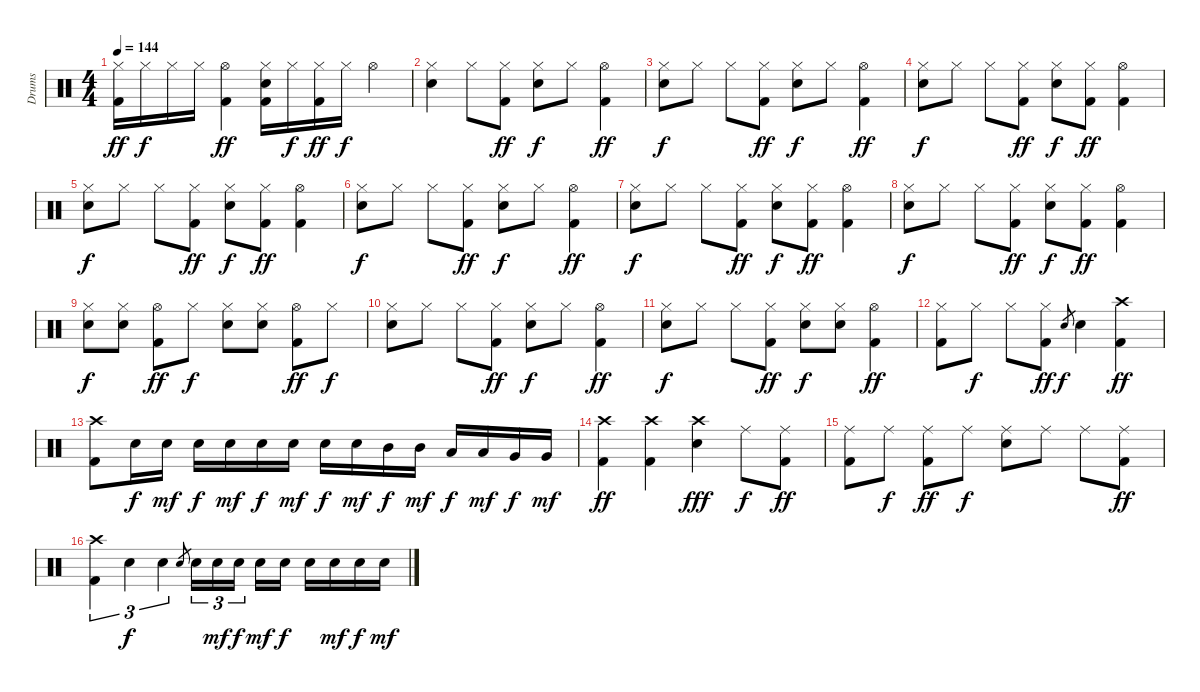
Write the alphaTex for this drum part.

\track ("Drums" "Drums") {instrument percussion}
\staff {score}
\articulation defaults
\ts (4 4)
\tempo 144
\clef neutral
\ks c
("Hi-Hat (closed)" "Kick (hit) 2").16{dy ff} "Hi-Hat (closed)".16{dy f} "Hi-Hat (closed)".16 "Hi-Hat (closed)".16 ("Hi-Hat (open)" "Kick (hit) 2").4{dy ff} ("Hi-Hat (closed)" "Snare (hit) 2" "Kick (hit) 2").16 "Hi-Hat (closed)".16{dy f} ("Hi-Hat (closed)" "Kick (hit) 2").16{dy ff} "Hi-Hat (closed)".16{dy f} "Hi-Hat (open)".4 |
("Hi-Hat (closed)" "Snare (hit) 2").4 "Hi-Hat (closed)".8 ("Hi-Hat (closed)" "Kick (hit) 2").8{dy ff} ("Hi-Hat (closed)" "Snare (hit) 2").8{dy f} "Hi-Hat (closed)".8 ("Hi-Hat (open)" "Kick (hit) 2").4{dy ff} |
("Hi-Hat (closed)" "Snare (hit) 2").8{dy f} "Hi-Hat (closed)".8 "Hi-Hat (closed)".8 ("Hi-Hat (closed)" "Kick (hit) 2").8{dy ff} ("Hi-Hat (closed)" "Snare (hit) 2").8{dy f} "Hi-Hat (closed)".8 ("Hi-Hat (open)" "Kick (hit) 2").4{dy ff} |
("Hi-Hat (closed)" "Snare (hit) 2").8{dy f} "Hi-Hat (closed)".8 "Hi-Hat (closed)".8 ("Hi-Hat (closed)" "Kick (hit) 2").8{dy ff} ("Hi-Hat (closed)" "Snare (hit) 2").8{dy f} ("Hi-Hat (closed)" "Kick (hit) 2").8{dy ff} ("Hi-Hat (open)" "Kick (hit) 2").4 |
("Hi-Hat (closed)" "Snare (hit) 2").8{dy f} "Hi-Hat (closed)".8 "Hi-Hat (closed)".8 ("Hi-Hat (closed)" "Kick (hit) 2").8{dy ff} ("Hi-Hat (closed)" "Snare (hit) 2").8{dy f} ("Hi-Hat (closed)" "Kick (hit) 2").8{dy ff} ("Hi-Hat (open)" "Kick (hit) 2").4 |
("Hi-Hat (closed)" "Snare (hit) 2").8{dy f} "Hi-Hat (closed)".8 "Hi-Hat (closed)".8 ("Hi-Hat (closed)" "Kick (hit) 2").8{dy ff} ("Hi-Hat (closed)" "Snare (hit) 2").8{dy f} "Hi-Hat (closed)".8 ("Hi-Hat (open)" "Kick (hit) 2").4{dy ff} |
("Hi-Hat (closed)" "Snare (hit) 2").8{dy f} "Hi-Hat (closed)".8 "Hi-Hat (closed)".8 ("Hi-Hat (closed)" "Kick (hit) 2").8{dy ff} ("Hi-Hat (closed)" "Snare (hit) 2").8{dy f} ("Hi-Hat (closed)" "Kick (hit) 2").8{dy ff} ("Hi-Hat (open)" "Kick (hit) 2").4 |
("Hi-Hat (closed)" "Snare (hit) 2").8{dy f} "Hi-Hat (closed)".8 "Hi-Hat (closed)".8 ("Hi-Hat (closed)" "Kick (hit) 2").8{dy ff} ("Hi-Hat (closed)" "Snare (hit) 2").8{dy f} ("Hi-Hat (closed)" "Kick (hit) 2").8{dy ff} ("Hi-Hat (open)" "Kick (hit) 2").4 |
("Hi-Hat (closed)" "Snare (hit) 2").8{dy f} ("Hi-Hat (closed)" "Snare (hit) 2").8 ("Hi-Hat (open)" "Kick (hit) 2").8{dy ff} "Hi-Hat (closed)".8{dy f} ("Hi-Hat (closed)" "Snare (hit) 2").8 ("Hi-Hat (closed)" "Snare (hit) 2").8 ("Hi-Hat (open)" "Kick (hit) 2").8{dy ff} "Hi-Hat (closed)".8{dy f} |
("Hi-Hat (closed)" "Snare (hit) 2").8 "Hi-Hat (closed)".8 "Hi-Hat (closed)".8 ("Hi-Hat (closed)" "Kick (hit) 2").8{dy ff} ("Hi-Hat (closed)" "Snare (hit) 2").8{dy f} "Hi-Hat (closed)".8 ("Hi-Hat (open)" "Kick (hit) 2").4{dy ff} |
("Hi-Hat (closed)" "Snare (hit) 2").8{dy f} "Hi-Hat (closed)".8 "Hi-Hat (closed)".8 ("Hi-Hat (closed)" "Kick (hit) 2").8{dy ff} ("Hi-Hat (closed)" "Snare (hit) 2").8{dy f} ("Hi-Hat (closed)" "Snare (hit) 2").8 ("Hi-Hat (open)" "Kick (hit) 2").4{dy ff} |
("Hi-Hat (closed)" "Kick (hit) 2").8 "Hi-Hat (closed)".8{dy f} "Hi-Hat (closed)".8 ("Hi-Hat (closed)" "Kick (hit) 2").8{dy ff} "Snare (hit) 2".8{gr dy f} "Snare (hit) 2".4 ("Crash high (hit)" "Kick (hit) 2").4{dy ff} |
("Crash high (hit)" "Kick (hit) 2").8 "Snare (hit) 2".16{dy f} "Snare (hit) 2".16{dy mf} "Snare (hit) 2".16{dy f} "Snare (hit) 2".16{dy mf} "Snare (hit) 2".16{dy f} "Snare (hit) 2".16{dy mf} "Snare (hit) 2".16{dy f} "Snare (hit) 2".16{dy mf} "Mid Tom (hit)".16{dy f} "Mid Tom (hit)".16{dy mf} "Low Tom (hit)".16{dy f} "Low Tom (hit)".16{dy mf} "Very Low Tom (hit)".16{dy f} "Very Low Tom (hit)".16{dy mf} |
("Crash high (hit)" "Kick (hit) 2").4{dy ff} ("Crash high (hit)" "Kick (hit) 2").4 ("Crash high (hit)" "Snare (hit) 2").4{dy fff} "Ride (middle)".8{dy f} ("Ride (middle)" "Kick (hit) 2").8{dy ff} |
("Ride (middle)" "Kick (hit) 2").8 "Ride (middle)".8{dy f} ("Ride (middle)" "Kick (hit) 2").8{dy ff} "Ride (middle)".8{dy f} ("Ride (middle)" "Snare (hit) 2").8 "Ride (middle)".8 "Ride (middle)".8 ("Ride (middle)" "Kick (hit) 2").8{dy ff} |
("Crash high (hit)" "Kick (hit) 2").4{tu (3 2)} "Snare (hit) 2".4{tu (3 2) dy f} "Snare (hit) 2".4{tu (3 2)} "Snare (hit) 2".8{gr} "Snare (hit) 2".16{tu (3 2)} "Snare (hit) 2".16{tu (3 2) dy mf} "Snare (hit) 2".16{tu (3 2) dy f} "Snare (hit) 2".16{dy mf} "Snare (hit) 2".16{dy f} "Snare (hit) 2".16 "Snare (hit) 2".16{dy mf} "Snare (hit) 2".16{dy f} "Snare (hit) 2".16{dy mf}
